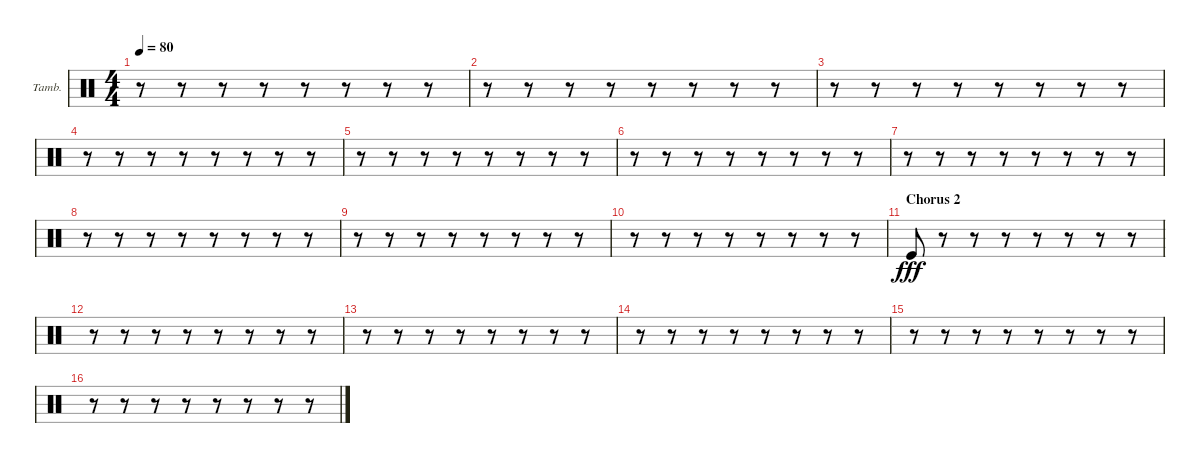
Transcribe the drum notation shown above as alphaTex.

\bracketExtendMode groupsimilarinstruments
\firstSystemTrackNameOrientation horizontal
\otherSystemsTrackNameOrientation horizontal
\chordDiagramsInScore
\track ("Tambourine" "Tamb.") {instrument percussion}
\staff {score}
\articulation defaults
\ts (4 4)
\tempo 80
\clef neutral
\ks c
r.8{dy fff} r.8 r.8 r.8 r.8 r.8 r.8 r.8 |
r.8 r.8 r.8 r.8 r.8 r.8 r.8 r.8 |
r.8 r.8 r.8 r.8 r.8 r.8 r.8 r.8 |
r.8 r.8 r.8 r.8 r.8 r.8 r.8 r.8 |
r.8 r.8 r.8 r.8 r.8 r.8 r.8 r.8 |
r.8 r.8 r.8 r.8 r.8 r.8 r.8 r.8 |
r.8 r.8 r.8 r.8 r.8 r.8 r.8 r.8 |
r.8 r.8 r.8 r.8 r.8 r.8 r.8 r.8 |
r.8 r.8 r.8 r.8 r.8 r.8 r.8 r.8 |
r.8 r.8 r.8 r.8 r.8 r.8 r.8 r.8 |
\section ("" "Chorus 2")
"Kick (hit)".8 r.8 r.8 r.8 r.8 r.8 r.8 r.8 |
r.8 r.8 r.8 r.8 r.8 r.8 r.8 r.8 |
r.8 r.8 r.8 r.8 r.8 r.8 r.8 r.8 |
r.8 r.8 r.8 r.8 r.8 r.8 r.8 r.8 |
r.8 r.8 r.8 r.8 r.8 r.8 r.8 r.8 |
r.8 r.8 r.8 r.8 r.8 r.8 r.8 r.8
